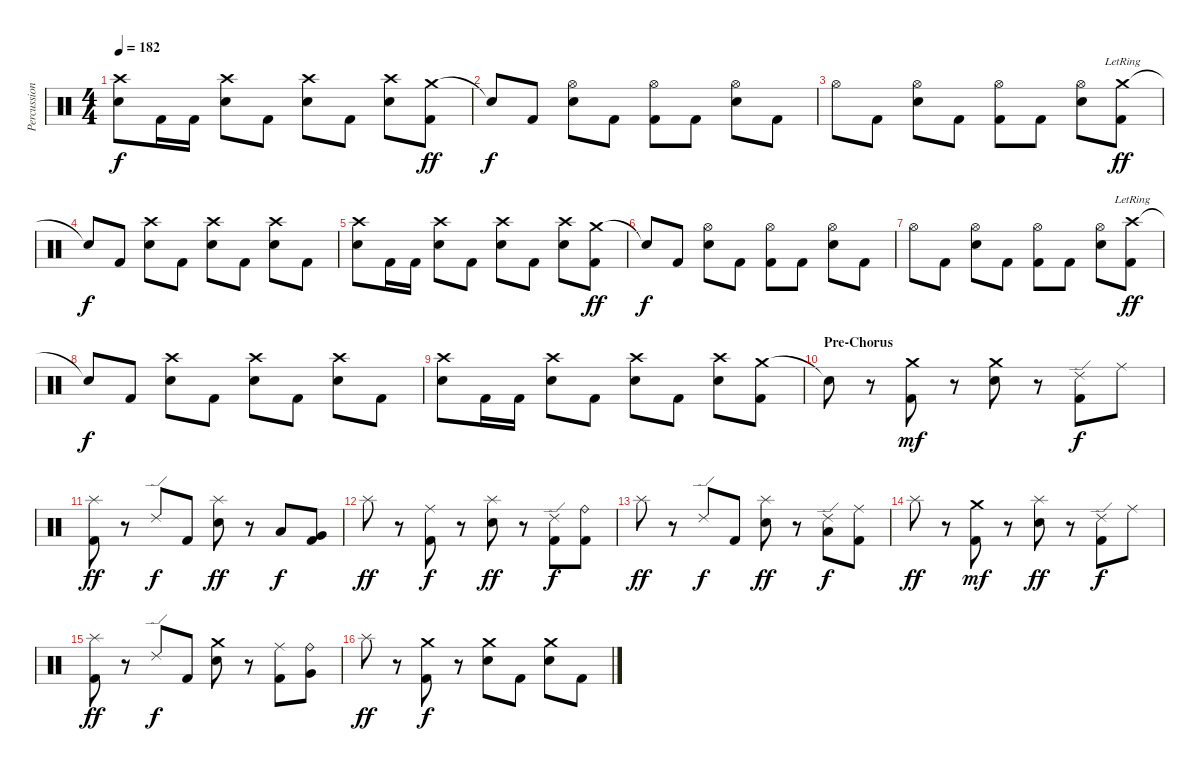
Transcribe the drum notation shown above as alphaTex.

\track ("Percussions" "Percussion") {instrument percussion}
\staff {score}
\articulation defaults
\ts (4 4)
\tempo 182
\clef neutral
\ks c
("Crash high (hit)" "Electric Snare (hit)").8{dy f} "Kick (hit) 2".16 "Kick (hit) 2".16 ("Crash high (hit)" "Electric Snare (hit)").8 "Kick (hit) 2".8 ("Crash high (hit)" "Electric Snare (hit)").8 "Kick (hit) 2".8 ("Crash high (hit)" "Electric Snare (hit)").8 ("Crash medium (hit)" "Kick (hit) 2").8{dy ff} |
"Snare (hit)"{t}.8{dy f} "Kick (hit) 2".8 ("Hi-Hat (open)" "Electric Snare (hit)").8 "Kick (hit) 2".8 ("Hi-Hat (open)" "Kick (hit) 2").8 "Kick (hit) 2".8 ("Hi-Hat (open)" "Electric Snare (hit)").8 "Kick (hit) 2".8 |
"Hi-Hat (open)".8 "Kick (hit) 2".8 ("Hi-Hat (open)" "Electric Snare (hit)").8 "Kick (hit) 2".8 ("Hi-Hat (open)" "Kick (hit) 2").8 "Kick (hit) 2".8 ("Hi-Hat (open)" "Electric Snare (hit)").8 ("Crash medium (hit)"{lr} "Kick (hit) 2").8{dy ff} |
"Snare (hit)"{t}.8{dy f} "Kick (hit) 2".8 ("Crash high (hit)" "Electric Snare (hit)").8 "Kick (hit) 2".8 ("Crash high (hit)" "Electric Snare (hit)").8 "Kick (hit) 2".8 ("Crash high (hit)" "Electric Snare (hit)").8 "Kick (hit) 2".8 |
("Crash high (hit)" "Electric Snare (hit)").8 "Kick (hit) 2".16 "Kick (hit) 2".16 ("Crash high (hit)" "Electric Snare (hit)").8 "Kick (hit) 2".8 ("Crash high (hit)" "Electric Snare (hit)").8 "Kick (hit) 2".8 ("Crash high (hit)" "Electric Snare (hit)").8 ("Crash medium (hit)" "Kick (hit) 2").8{dy ff} |
"Snare (hit)"{t}.8{dy f} "Kick (hit) 2".8 ("Hi-Hat (open)" "Electric Snare (hit)").8 "Kick (hit) 2".8 ("Hi-Hat (open)" "Kick (hit) 2").8 "Kick (hit) 2".8 ("Hi-Hat (open)" "Electric Snare (hit)").8 "Kick (hit) 2".8 |
"Hi-Hat (open)".8 "Kick (hit) 2".8 ("Hi-Hat (open)" "Electric Snare (hit)").8 "Kick (hit) 2".8 ("Hi-Hat (open)" "Kick (hit) 2").8 "Kick (hit) 2".8 ("Hi-Hat (open)" "Electric Snare (hit)").8 ("Crash high (hit)"{lr} "Kick (hit) 2").8{dy ff} |
"Snare (hit)"{t}.8{dy f} "Kick (hit) 2".8 ("Crash high (hit)" "Electric Snare (hit)").8 "Kick (hit) 2".8 ("Crash high (hit)" "Electric Snare (hit)").8 "Kick (hit) 2".8 ("Crash high (hit)" "Electric Snare (hit)").8 "Kick (hit) 2".8 |
("Crash high (hit)" "Electric Snare (hit)").8 "Kick (hit) 2".16 "Kick (hit) 2".16 ("Crash high (hit)" "Electric Snare (hit)").8 "Kick (hit) 2".8 ("Crash high (hit)" "Electric Snare (hit)").8 "Kick (hit) 2".8 ("Crash high (hit)" "Electric Snare (hit)").8 ("Crash medium (hit)" "Kick (hit) 2").8 |
\section ("" "Pre-Chorus")
"Snare (hit)"{t}.8 r.8 ("Crash medium (hit)" "Kick (hit) 2").8{dy mf} r.8 ("Crash medium (hit)" "Electric Snare (hit)").8 r.8 ("Ride (edge) 2" "Kick (hit) 2").8{dy f} "Ride (middle)".8 |
("Splash (hit)" "Kick (hit) 2").8{dy ff} r.8 "Ride (edge) 2".8{dy f} "Kick (hit) 2".8 ("Splash (hit)" "Electric Snare (hit)").8{dy ff} r.8 "Low Tom (hit)".8{dy f} ("Very Low Tom (hit)" "Kick (hit) 2").8 |
"Splash (hit)".8{dy ff} r.8 ("Ride (middle)" "Kick (hit) 2").8{dy f} r.8 ("Splash (hit)" "Electric Snare (hit)").8{dy ff} r.8 ("Ride (edge) 2" "Kick (hit) 2").8{dy f} ("Ride (bell)" "Kick (hit) 2").8 |
"Splash (hit)".8{dy ff} r.8 "Ride (edge) 2".8{dy f} "Kick (hit) 2".8 ("Splash (hit)" "Electric Snare (hit)").8{dy ff} r.8 ("Ride (edge) 2" "Low Tom (hit)").8{dy f} ("Ride (middle)" "Kick (hit) 2").8 |
"Splash (hit)".8{dy ff} r.8 ("Crash medium (hit)" "Kick (hit) 2").8{dy mf} r.8 ("Splash (hit)" "Electric Snare (hit)").8{dy ff} r.8 ("Ride (edge) 2" "Kick (hit) 2").8{dy f} "Ride (middle)".8 |
("Splash (hit)" "Kick (hit) 2").8{dy ff} r.8 "Ride (edge) 2".8{dy f} "Kick (hit) 2".8 ("Crash medium (hit)" "Electric Snare (hit)").8 r.8 ("Ride (middle)" "Kick (hit) 2").8 ("Ride (bell)" "Very Low Tom (hit)").8 |
"Splash (hit)".8{dy ff} r.8 ("Crash medium (hit)" "Kick (hit) 2").8{dy f} r.8 ("Crash medium (hit)" "Electric Snare (hit)").8 "Kick (hit) 2".8 ("Crash medium (hit)" "Electric Snare (hit)").8 "Kick (hit) 2".8
